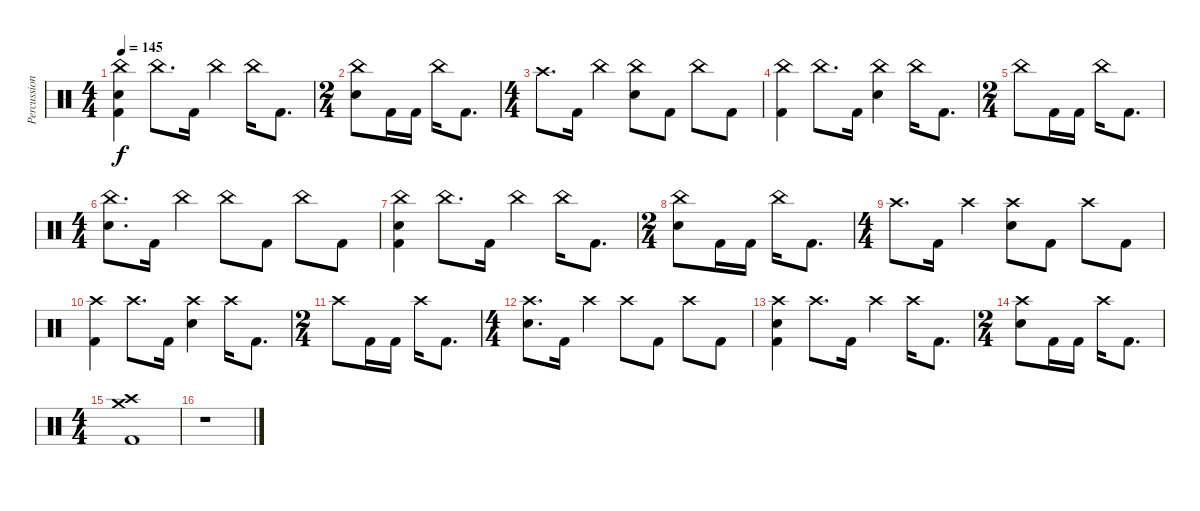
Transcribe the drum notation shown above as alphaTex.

\track ("Percussion" "Percussion") {instrument percussion}
\staff {score}
\articulation defaults
\ts (4 4)
\tempo 145
\clef neutral
\ks c
("China (hit)" "Electric Snare (hit)" "Kick (hit) 2").4{dy f} "China (hit)".8{d} "Kick (hit) 2".16 "China (hit)".4 "China (hit)".16 "Kick (hit) 2".8{d} |
\ts (2 4)
("China (hit)" "Electric Snare (hit)").8 "Kick (hit) 2".16 "Kick (hit) 2".16 "China (hit)".16 "Kick (hit) 2".8{d} |
\ts (4 4)
"Crash high (hit)".8{d} "Kick (hit) 2".16 "China (hit)".4 ("China (hit)" "Electric Snare (hit)").8 "Kick (hit) 2".8 "China (hit)".8 "Kick (hit) 2".8 |
("China (hit)" "Kick (hit) 2").4 "China (hit)".8{d} "Kick (hit) 2".16 ("China (hit)" "Electric Snare (hit)").4 "China (hit)".16 "Kick (hit) 2".8{d} |
\ts (2 4)
"China (hit)".8 "Kick (hit) 2".16 "Kick (hit) 2".16 "China (hit)".16 "Kick (hit) 2".8{d} |
\ts (4 4)
("China (hit)" "Electric Snare (hit)").8{d} "Kick (hit) 2".16 "China (hit)".4 "China (hit)".8 "Kick (hit) 2".8 "China (hit)".8 "Kick (hit) 2".8 |
("China (hit)" "Electric Snare (hit)" "Kick (hit) 2").4 "China (hit)".8{d} "Kick (hit) 2".16 "China (hit)".4 "China (hit)".16 "Kick (hit) 2".8{d} |
\ts (2 4)
("China (hit)" "Electric Snare (hit)").8 "Kick (hit) 2".16 "Kick (hit) 2".16 "China (hit)".16 "Kick (hit) 2".8{d} |
\ts (4 4)
"Crash high (hit)".8{d} "Kick (hit) 2".16 "Crash high (hit)".4 ("Crash high (hit)" "Electric Snare (hit)").8 "Kick (hit) 2".8 "Crash high (hit)".8 "Kick (hit) 2".8 |
("Crash high (hit)" "Kick (hit) 2").4 "Crash high (hit)".8{d} "Kick (hit) 2".16 ("Crash high (hit)" "Electric Snare (hit)").4 "Crash high (hit)".16 "Kick (hit) 2".8{d} |
\ts (2 4)
"Crash high (hit)".8 "Kick (hit) 2".16 "Kick (hit) 2".16 "Crash high (hit)".16 "Kick (hit) 2".8{d} |
\ts (4 4)
("Crash high (hit)" "Electric Snare (hit)").8{d} "Kick (hit) 2".16 "Crash high (hit)".4 "Crash high (hit)".8 "Kick (hit) 2".8 "Crash high (hit)".8 "Kick (hit) 2".8 |
("Crash high (hit)" "Electric Snare (hit)" "Kick (hit) 2").4 "Crash high (hit)".8{d} "Kick (hit) 2".16 "Crash high (hit)".4 "Crash high (hit)".16 "Kick (hit) 2".8{d} |
\ts (2 4)
("Crash high (hit)" "Electric Snare (hit)").8 "Kick (hit) 2".16 "Kick (hit) 2".16 "Crash high (hit)".16 "Kick (hit) 2".8{d} |
\ts (4 4)
("Crash medium (hit)" "Crash high (hit)" "Kick (hit) 2").1 |
r.1
